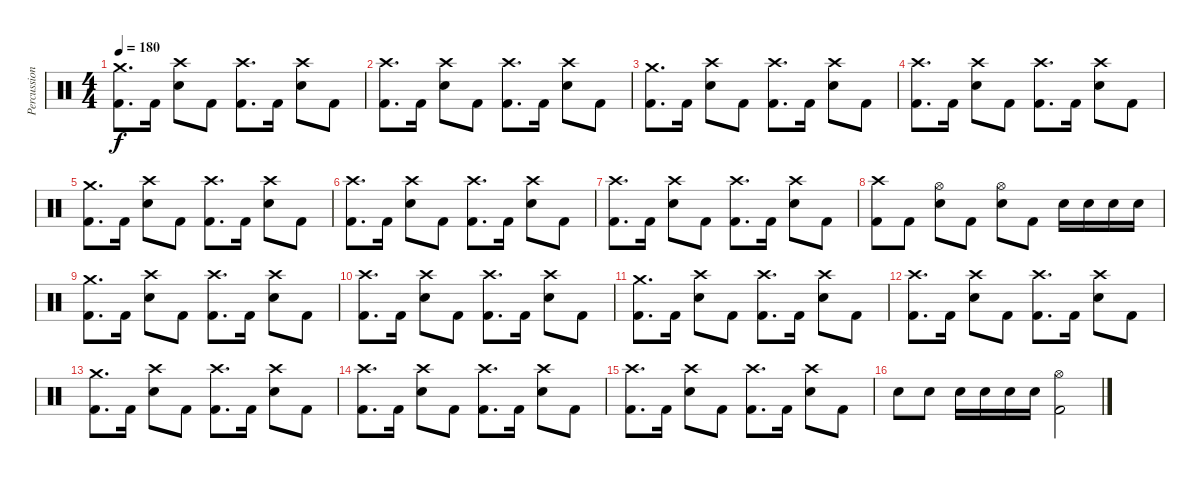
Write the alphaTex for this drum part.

\track ("Percussion" "Percussion") {instrument percussion}
\staff {score}
\articulation defaults
\ts (4 4)
\tempo 180
\clef neutral
\ks c
("Crash medium (hit)" "Kick (hit) 2").8{d dy f} "Kick (hit) 2".16 ("Crash high (hit)" "Electric Snare (hit)").8 "Kick (hit) 2".8 ("Crash high (hit)" "Kick (hit) 2").8{d} "Kick (hit) 2".16 ("Crash high (hit)" "Electric Snare (hit)").8 "Kick (hit) 2".8 |
("Crash high (hit)" "Kick (hit) 2").8{d} "Kick (hit) 2".16 ("Crash high (hit)" "Electric Snare (hit)").8 "Kick (hit) 2".8 ("Crash high (hit)" "Kick (hit) 2").8{d} "Kick (hit) 2".16 ("Crash high (hit)" "Electric Snare (hit)").8 "Kick (hit) 2".8 |
("Crash medium (hit)" "Kick (hit) 2").8{d} "Kick (hit) 2".16 ("Crash high (hit)" "Electric Snare (hit)").8 "Kick (hit) 2".8 ("Crash high (hit)" "Kick (hit) 2").8{d} "Kick (hit) 2".16 ("Crash high (hit)" "Electric Snare (hit)").8 "Kick (hit) 2".8 |
("Crash high (hit)" "Kick (hit) 2").8{d} "Kick (hit) 2".16 ("Crash high (hit)" "Electric Snare (hit)").8 "Kick (hit) 2".8 ("Crash high (hit)" "Kick (hit) 2").8{d} "Kick (hit) 2".16 ("Crash high (hit)" "Electric Snare (hit)").8 "Kick (hit) 2".8 |
("Crash medium (hit)" "Kick (hit) 2").8{d} "Kick (hit) 2".16 ("Crash high (hit)" "Electric Snare (hit)").8 "Kick (hit) 2".8 ("Crash high (hit)" "Kick (hit) 2").8{d} "Kick (hit) 2".16 ("Crash high (hit)" "Electric Snare (hit)").8 "Kick (hit) 2".8 |
("Crash high (hit)" "Kick (hit) 2").8{d} "Kick (hit) 2".16 ("Crash high (hit)" "Electric Snare (hit)").8 "Kick (hit) 2".8 ("Crash high (hit)" "Kick (hit) 2").8{d} "Kick (hit) 2".16 ("Crash high (hit)" "Electric Snare (hit)").8 "Kick (hit) 2".8 |
("Crash high (hit)" "Kick (hit) 2").8{d} "Kick (hit) 2".16 ("Crash high (hit)" "Electric Snare (hit)").8 "Kick (hit) 2".8 ("Crash high (hit)" "Kick (hit) 2").8{d} "Kick (hit) 2".16 ("Crash high (hit)" "Electric Snare (hit)").8 "Kick (hit) 2".8 |
("Crash high (hit)" "Kick (hit) 2").8 "Kick (hit) 2".8 ("Hi-Hat (open)" "Electric Snare (hit)").8 "Kick (hit) 2".8 ("Hi-Hat (open)" "Electric Snare (hit)").8 "Kick (hit) 2".8 "Electric Snare (hit)".16 "Electric Snare (hit)".16 "Electric Snare (hit)".16 "Electric Snare (hit)".16 |
("Crash medium (hit)" "Kick (hit) 2").8{d} "Kick (hit) 2".16 ("Crash high (hit)" "Electric Snare (hit)").8 "Kick (hit) 2".8 ("Crash high (hit)" "Kick (hit) 2").8{d} "Kick (hit) 2".16 ("Crash high (hit)" "Electric Snare (hit)").8 "Kick (hit) 2".8 |
("Crash high (hit)" "Kick (hit) 2").8{d} "Kick (hit) 2".16 ("Crash high (hit)" "Electric Snare (hit)").8 "Kick (hit) 2".8 ("Crash high (hit)" "Kick (hit) 2").8{d} "Kick (hit) 2".16 ("Crash high (hit)" "Electric Snare (hit)").8 "Kick (hit) 2".8 |
("Crash medium (hit)" "Kick (hit) 2").8{d} "Kick (hit) 2".16 ("Crash high (hit)" "Electric Snare (hit)").8 "Kick (hit) 2".8 ("Crash high (hit)" "Kick (hit) 2").8{d} "Kick (hit) 2".16 ("Crash high (hit)" "Electric Snare (hit)").8 "Kick (hit) 2".8 |
("Crash high (hit)" "Kick (hit) 2").8{d} "Kick (hit) 2".16 ("Crash high (hit)" "Electric Snare (hit)").8 "Kick (hit) 2".8 ("Crash high (hit)" "Kick (hit) 2").8{d} "Kick (hit) 2".16 ("Crash high (hit)" "Electric Snare (hit)").8 "Kick (hit) 2".8 |
("Crash medium (hit)" "Kick (hit) 2").8{d} "Kick (hit) 2".16 ("Crash high (hit)" "Electric Snare (hit)").8 "Kick (hit) 2".8 ("Crash high (hit)" "Kick (hit) 2").8{d} "Kick (hit) 2".16 ("Crash high (hit)" "Electric Snare (hit)").8 "Kick (hit) 2".8 |
("Crash high (hit)" "Kick (hit) 2").8{d} "Kick (hit) 2".16 ("Crash high (hit)" "Electric Snare (hit)").8 "Kick (hit) 2".8 ("Crash high (hit)" "Kick (hit) 2").8{d} "Kick (hit) 2".16 ("Crash high (hit)" "Electric Snare (hit)").8 "Kick (hit) 2".8 |
("Crash high (hit)" "Kick (hit) 2").8{d} "Kick (hit) 2".16 ("Crash high (hit)" "Electric Snare (hit)").8 "Kick (hit) 2".8 ("Crash high (hit)" "Kick (hit) 2").8{d} "Kick (hit) 2".16 ("Crash high (hit)" "Electric Snare (hit)").8 "Kick (hit) 2".8 |
"Electric Snare (hit)".8 "Electric Snare (hit)".8 "Electric Snare (hit)".16 "Electric Snare (hit)".16 "Electric Snare (hit)".16 "Electric Snare (hit)".16 ("Hi-Hat (open)" "Kick (hit) 2").2
